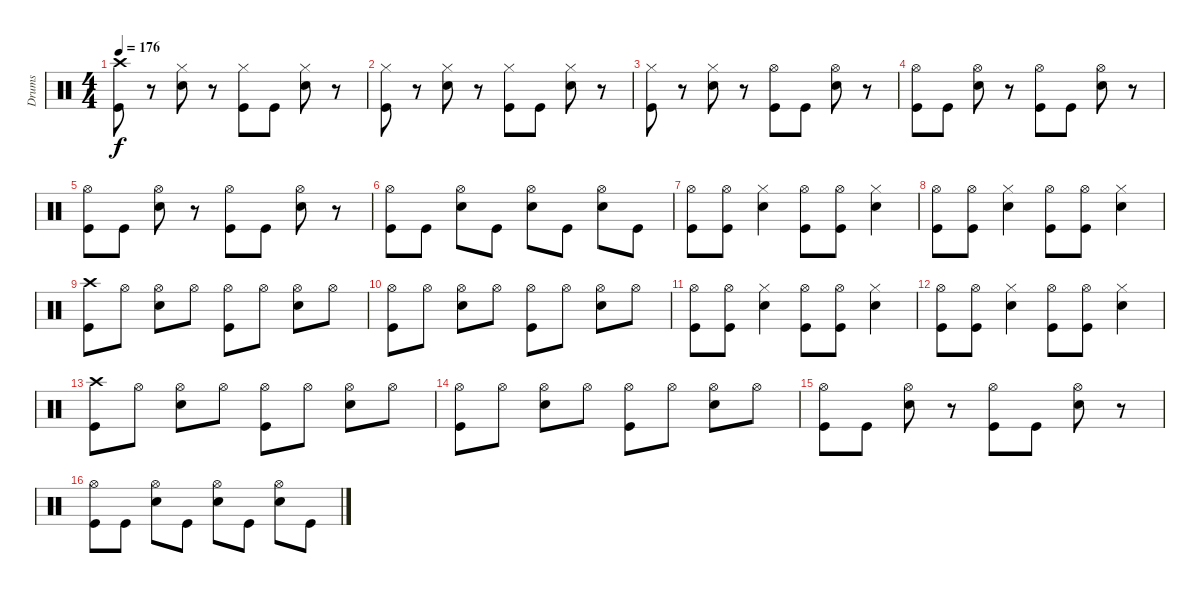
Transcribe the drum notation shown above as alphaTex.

\track ("Drums" "Drums") {instrument percussion}
\staff {score}
\articulation defaults
\ts (4 4)
\tempo 176
\clef neutral
\ks c
("Crash high (hit)" "Kick (hit)").8{dy f} r.8 ("Hi-Hat (closed)" "Snare (hit) 2").8 r.8 ("Hi-Hat (closed)" "Kick (hit)").8 "Kick (hit)".8 ("Hi-Hat (closed)" "Snare (hit) 2").8 r.8 |
("Hi-Hat (closed)" "Kick (hit)").8 r.8 ("Hi-Hat (closed)" "Snare (hit) 2").8 r.8 ("Hi-Hat (closed)" "Kick (hit)").8 "Kick (hit)".8 ("Hi-Hat (closed)" "Snare (hit) 2").8 r.8 |
("Hi-Hat (closed)" "Kick (hit)").8 r.8 ("Hi-Hat (closed)" "Snare (hit) 2").8 r.8 ("Hi-Hat (open)" "Kick (hit)").8 "Kick (hit)".8 ("Hi-Hat (open)" "Snare (hit) 2").8 r.8 |
("Hi-Hat (open)" "Kick (hit)").8 "Kick (hit)".8 ("Hi-Hat (open)" "Snare (hit) 2").8 r.8 ("Hi-Hat (open)" "Kick (hit)").8 "Kick (hit)".8 ("Hi-Hat (open)" "Snare (hit) 2").8 r.8 |
("Hi-Hat (open)" "Kick (hit)").8 "Kick (hit)".8 ("Hi-Hat (open)" "Snare (hit) 2").8 r.8 ("Hi-Hat (open)" "Kick (hit)").8 "Kick (hit)".8 ("Hi-Hat (open)" "Snare (hit) 2").8 r.8 |
("Hi-Hat (open)" "Kick (hit)").8 "Kick (hit)".8 ("Hi-Hat (open)" "Snare (hit) 2").8 "Kick (hit)".8 ("Hi-Hat (open)" "Snare (hit) 2").8 "Kick (hit)".8 ("Hi-Hat (open)" "Snare (hit) 2").8 "Kick (hit)".8 |
("Hi-Hat (open)" "Kick (hit)").8 ("Hi-Hat (open)" "Kick (hit)").8 ("Hi-Hat (closed)" "Snare (hit) 2").4 ("Hi-Hat (open)" "Kick (hit)").8 ("Hi-Hat (open)" "Kick (hit)").8 ("Hi-Hat (closed)" "Snare (hit) 2").4 |
("Hi-Hat (open)" "Kick (hit)").8 ("Hi-Hat (open)" "Kick (hit)").8 ("Hi-Hat (closed)" "Snare (hit) 2").4 ("Hi-Hat (open)" "Kick (hit)").8 ("Hi-Hat (open)" "Kick (hit)").8 ("Hi-Hat (closed)" "Snare (hit) 2").4 |
("Crash high (hit)" "Kick (hit)").8 "Hi-Hat (open)".8 ("Hi-Hat (open)" "Snare (hit) 2").8 "Hi-Hat (open)".8 ("Hi-Hat (open)" "Kick (hit)").8 "Hi-Hat (open)".8 ("Hi-Hat (open)" "Snare (hit) 2").8 "Hi-Hat (open)".8 |
("Hi-Hat (open)" "Kick (hit)").8 "Hi-Hat (open)".8 ("Hi-Hat (open)" "Snare (hit) 2").8 "Hi-Hat (open)".8 ("Hi-Hat (open)" "Kick (hit)").8 "Hi-Hat (open)".8 ("Hi-Hat (open)" "Snare (hit) 2").8 "Hi-Hat (open)".8 |
("Hi-Hat (open)" "Kick (hit)").8 ("Hi-Hat (open)" "Kick (hit)").8 ("Hi-Hat (closed)" "Snare (hit) 2").4 ("Hi-Hat (open)" "Kick (hit)").8 ("Hi-Hat (open)" "Kick (hit)").8 ("Hi-Hat (closed)" "Snare (hit) 2").4 |
("Hi-Hat (open)" "Kick (hit)").8 ("Hi-Hat (open)" "Kick (hit)").8 ("Hi-Hat (closed)" "Snare (hit) 2").4 ("Hi-Hat (open)" "Kick (hit)").8 ("Hi-Hat (open)" "Kick (hit)").8 ("Hi-Hat (closed)" "Snare (hit) 2").4 |
("Crash high (hit)" "Kick (hit)").8 "Hi-Hat (open)".8 ("Hi-Hat (open)" "Snare (hit) 2").8 "Hi-Hat (open)".8 ("Hi-Hat (open)" "Kick (hit)").8 "Hi-Hat (open)".8 ("Hi-Hat (open)" "Snare (hit) 2").8 "Hi-Hat (open)".8 |
("Hi-Hat (open)" "Kick (hit)").8 "Hi-Hat (open)".8 ("Hi-Hat (open)" "Snare (hit) 2").8 "Hi-Hat (open)".8 ("Hi-Hat (open)" "Kick (hit)").8 "Hi-Hat (open)".8 ("Hi-Hat (open)" "Snare (hit) 2").8 "Hi-Hat (open)".8 |
("Hi-Hat (open)" "Kick (hit)").8 "Kick (hit)".8 ("Hi-Hat (open)" "Snare (hit) 2").8 r.8 ("Hi-Hat (open)" "Kick (hit)").8 "Kick (hit)".8 ("Hi-Hat (open)" "Snare (hit) 2").8 r.8 |
("Hi-Hat (open)" "Kick (hit)").8 "Kick (hit)".8 ("Hi-Hat (open)" "Snare (hit) 2").8 "Kick (hit)".8 ("Hi-Hat (open)" "Snare (hit) 2").8 "Kick (hit)".8 ("Hi-Hat (open)" "Snare (hit) 2").8 "Kick (hit)".8
